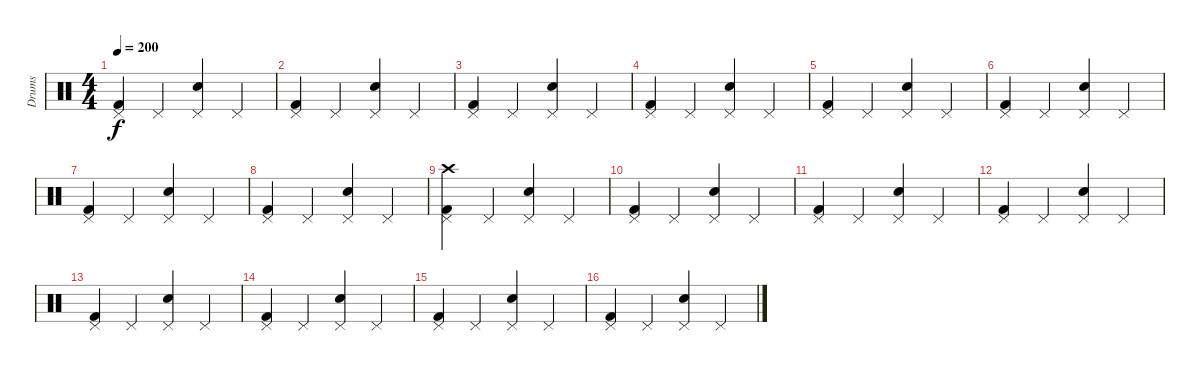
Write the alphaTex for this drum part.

\track ("Drums" "Drums") {instrument percussion}
\staff {score}
\articulation defaults
\ts (4 4)
\tempo 200
\clef neutral
\ks c
("Pedal Hi-Hat (hit)" "Kick (hit) 2").4{dy f} "Pedal Hi-Hat (hit)".4 ("Pedal Hi-Hat (hit)" "Snare (hit) 2").4 "Pedal Hi-Hat (hit)".4 |
("Pedal Hi-Hat (hit)" "Kick (hit) 2").4 "Pedal Hi-Hat (hit)".4 ("Pedal Hi-Hat (hit)" "Snare (hit) 2").4 "Pedal Hi-Hat (hit)".4 |
("Pedal Hi-Hat (hit)" "Kick (hit) 2").4 "Pedal Hi-Hat (hit)".4 ("Pedal Hi-Hat (hit)" "Snare (hit) 2").4 "Pedal Hi-Hat (hit)".4 |
("Pedal Hi-Hat (hit)" "Kick (hit) 2").4 "Pedal Hi-Hat (hit)".4 ("Pedal Hi-Hat (hit)" "Snare (hit) 2").4 "Pedal Hi-Hat (hit)".4 |
("Pedal Hi-Hat (hit)" "Kick (hit) 2").4 "Pedal Hi-Hat (hit)".4 ("Pedal Hi-Hat (hit)" "Snare (hit) 2").4 "Pedal Hi-Hat (hit)".4 |
("Pedal Hi-Hat (hit)" "Kick (hit) 2").4 "Pedal Hi-Hat (hit)".4 ("Pedal Hi-Hat (hit)" "Snare (hit) 2").4 "Pedal Hi-Hat (hit)".4 |
("Pedal Hi-Hat (hit)" "Kick (hit) 2").4 "Pedal Hi-Hat (hit)".4 ("Pedal Hi-Hat (hit)" "Snare (hit) 2").4 "Pedal Hi-Hat (hit)".4 |
("Pedal Hi-Hat (hit)" "Kick (hit) 2").4 "Pedal Hi-Hat (hit)".4 ("Pedal Hi-Hat (hit)" "Snare (hit) 2").4 "Pedal Hi-Hat (hit)".4 |
("Pedal Hi-Hat (hit)" "Crash high (hit)" "Kick (hit) 2").4 "Pedal Hi-Hat (hit)".4 ("Pedal Hi-Hat (hit)" "Snare (hit) 2").4 "Pedal Hi-Hat (hit)".4 |
("Pedal Hi-Hat (hit)" "Kick (hit) 2").4 "Pedal Hi-Hat (hit)".4 ("Pedal Hi-Hat (hit)" "Snare (hit) 2").4 "Pedal Hi-Hat (hit)".4 |
("Pedal Hi-Hat (hit)" "Kick (hit) 2").4 "Pedal Hi-Hat (hit)".4 ("Pedal Hi-Hat (hit)" "Snare (hit) 2").4 "Pedal Hi-Hat (hit)".4 |
("Pedal Hi-Hat (hit)" "Kick (hit) 2").4 "Pedal Hi-Hat (hit)".4 ("Pedal Hi-Hat (hit)" "Snare (hit) 2").4 "Pedal Hi-Hat (hit)".4 |
("Pedal Hi-Hat (hit)" "Kick (hit) 2").4 "Pedal Hi-Hat (hit)".4 ("Pedal Hi-Hat (hit)" "Snare (hit) 2").4 "Pedal Hi-Hat (hit)".4 |
("Pedal Hi-Hat (hit)" "Kick (hit) 2").4 "Pedal Hi-Hat (hit)".4 ("Pedal Hi-Hat (hit)" "Snare (hit) 2").4 "Pedal Hi-Hat (hit)".4 |
("Pedal Hi-Hat (hit)" "Kick (hit) 2").4 "Pedal Hi-Hat (hit)".4 ("Pedal Hi-Hat (hit)" "Snare (hit) 2").4 "Pedal Hi-Hat (hit)".4 |
("Pedal Hi-Hat (hit)" "Kick (hit) 2").4 "Pedal Hi-Hat (hit)".4 ("Pedal Hi-Hat (hit)" "Snare (hit) 2").4 "Pedal Hi-Hat (hit)".4
